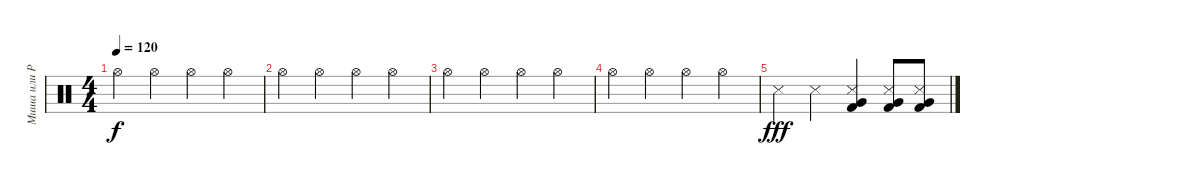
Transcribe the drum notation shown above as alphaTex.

\track ("Миша или Рома" "Миша или Р") {instrument percussion}
\staff {score}
\articulation defaults
\ts (4 4)
\tempo 120
\clef neutral
\ks c "Hi-Hat (open)".4{dy f} "Hi-Hat (open)".4 "Hi-Hat (open)".4 "Hi-Hat (open)".4
|
"Hi-Hat (open)".4 "Hi-Hat (open)".4 "Hi-Hat (open)".4 "Hi-Hat (open)".4 |
"Hi-Hat (open)".4 "Hi-Hat (open)".4 "Hi-Hat (open)".4 "Hi-Hat (open)".4 |
"Hi-Hat (open)".4 "Hi-Hat (open)".4 "Hi-Hat (open)".4 "Hi-Hat (open)".4 |
"Metronome (hit)".4{dy fff} "Metronome (hit)".4 ("Metronome (hit)" "Very Low Tom (hit)" "Kick (hit) 2").4 ("Metronome (hit)" "Very Low Tom (hit)" "Kick (hit) 2").8 ("Metronome (hit)" "Very Low Tom (hit)" "Kick (hit) 2").8
